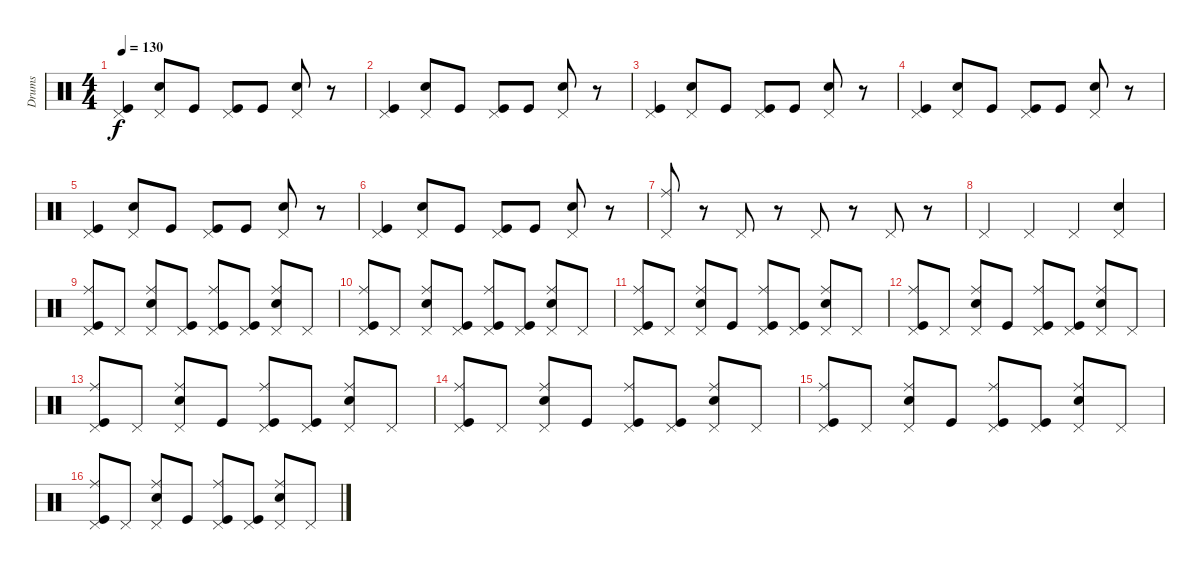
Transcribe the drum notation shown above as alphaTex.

\track ("Drums" "Drums") {instrument percussion}
\staff {score}
\articulation defaults
\ts (4 4)
\tempo 130
\clef neutral
\ks c
("Pedal Hi-Hat (hit)" "Kick (hit)").4{dy f} ("Pedal Hi-Hat (hit)" "Electric Snare (hit)").8 "Kick (hit)".8 ("Pedal Hi-Hat (hit)" "Kick (hit)").8 "Kick (hit)".8 ("Pedal Hi-Hat (hit)" "Electric Snare (hit)").8 r.8 |
("Pedal Hi-Hat (hit)" "Kick (hit)").4 ("Pedal Hi-Hat (hit)" "Electric Snare (hit)").8 "Kick (hit)".8 ("Pedal Hi-Hat (hit)" "Kick (hit)").8 "Kick (hit)".8 ("Pedal Hi-Hat (hit)" "Electric Snare (hit)").8 r.8 |
("Pedal Hi-Hat (hit)" "Kick (hit)").4 ("Pedal Hi-Hat (hit)" "Electric Snare (hit)").8 "Kick (hit)".8 ("Pedal Hi-Hat (hit)" "Kick (hit)").8 "Kick (hit)".8 ("Pedal Hi-Hat (hit)" "Electric Snare (hit)").8 r.8 |
("Pedal Hi-Hat (hit)" "Kick (hit)").4 ("Pedal Hi-Hat (hit)" "Electric Snare (hit)").8 "Kick (hit)".8 ("Pedal Hi-Hat (hit)" "Kick (hit)").8 "Kick (hit)".8 ("Pedal Hi-Hat (hit)" "Electric Snare (hit)").8 r.8 |
("Pedal Hi-Hat (hit)" "Kick (hit)").4 ("Pedal Hi-Hat (hit)" "Electric Snare (hit)").8 "Kick (hit)".8 ("Pedal Hi-Hat (hit)" "Kick (hit)").8 "Kick (hit)".8 ("Pedal Hi-Hat (hit)" "Electric Snare (hit)").8 r.8 |
("Pedal Hi-Hat (hit)" "Kick (hit)").4 ("Pedal Hi-Hat (hit)" "Electric Snare (hit)").8 "Kick (hit)".8 ("Pedal Hi-Hat (hit)" "Kick (hit)").8 "Kick (hit)".8 ("Pedal Hi-Hat (hit)" "Electric Snare (hit)").8 r.8 |
("Pedal Hi-Hat (hit)" "Ride (middle)").8 r.8 "Pedal Hi-Hat (hit)".8 r.8 "Pedal Hi-Hat (hit)".8 r.8 "Pedal Hi-Hat (hit)".8 r.8 |
"Pedal Hi-Hat (hit)".4 "Pedal Hi-Hat (hit)".4 "Pedal Hi-Hat (hit)".4 ("Electric Snare (hit)" "Pedal Hi-Hat (hit)").4 |
("Ride (middle)" "Pedal Hi-Hat (hit)" "Kick (hit)").8 "Pedal Hi-Hat (hit)".8 ("Ride (middle)" "Pedal Hi-Hat (hit)" "Electric Snare (hit)").8 ("Pedal Hi-Hat (hit)" "Kick (hit)").8 ("Ride (middle)" "Pedal Hi-Hat (hit)" "Kick (hit)").8 ("Pedal Hi-Hat (hit)" "Kick (hit)").8 ("Ride (middle)" "Pedal Hi-Hat (hit)" "Electric Snare (hit)").8 "Pedal Hi-Hat (hit)".8 |
("Ride (middle)" "Pedal Hi-Hat (hit)" "Kick (hit)").8 "Pedal Hi-Hat (hit)".8 ("Ride (middle)" "Pedal Hi-Hat (hit)" "Electric Snare (hit)").8 ("Pedal Hi-Hat (hit)" "Kick (hit)").8 ("Ride (middle)" "Pedal Hi-Hat (hit)" "Kick (hit)").8 ("Pedal Hi-Hat (hit)" "Kick (hit)").8 ("Ride (middle)" "Pedal Hi-Hat (hit)" "Electric Snare (hit)").8 "Pedal Hi-Hat (hit)".8 |
("Ride (middle)" "Pedal Hi-Hat (hit)" "Kick (hit)").8 "Pedal Hi-Hat (hit)".8 ("Ride (middle)" "Pedal Hi-Hat (hit)" "Electric Snare (hit)").8 "Kick (hit)".8 ("Ride (middle)" "Pedal Hi-Hat (hit)" "Kick (hit)").8 ("Pedal Hi-Hat (hit)" "Kick (hit)").8 ("Ride (middle)" "Pedal Hi-Hat (hit)" "Electric Snare (hit)").8 "Pedal Hi-Hat (hit)".8 |
("Ride (middle)" "Pedal Hi-Hat (hit)" "Kick (hit)").8 "Pedal Hi-Hat (hit)".8 ("Ride (middle)" "Pedal Hi-Hat (hit)" "Electric Snare (hit)").8 "Kick (hit)".8 ("Ride (middle)" "Pedal Hi-Hat (hit)" "Kick (hit)").8 ("Pedal Hi-Hat (hit)" "Kick (hit)").8 ("Ride (middle)" "Pedal Hi-Hat (hit)" "Electric Snare (hit)").8 "Pedal Hi-Hat (hit)".8 |
("Ride (middle)" "Pedal Hi-Hat (hit)" "Kick (hit)").8 "Pedal Hi-Hat (hit)".8 ("Ride (middle)" "Pedal Hi-Hat (hit)" "Electric Snare (hit)").8 "Kick (hit)".8 ("Ride (middle)" "Pedal Hi-Hat (hit)" "Kick (hit)").8 ("Pedal Hi-Hat (hit)" "Kick (hit)").8 ("Ride (middle)" "Pedal Hi-Hat (hit)" "Electric Snare (hit)").8 "Pedal Hi-Hat (hit)".8 |
("Ride (middle)" "Pedal Hi-Hat (hit)" "Kick (hit)").8 "Pedal Hi-Hat (hit)".8 ("Ride (middle)" "Pedal Hi-Hat (hit)" "Electric Snare (hit)").8 "Kick (hit)".8 ("Ride (middle)" "Pedal Hi-Hat (hit)" "Kick (hit)").8 ("Pedal Hi-Hat (hit)" "Kick (hit)").8 ("Ride (middle)" "Pedal Hi-Hat (hit)" "Electric Snare (hit)").8 "Pedal Hi-Hat (hit)".8 |
("Ride (middle)" "Pedal Hi-Hat (hit)" "Kick (hit)").8 "Pedal Hi-Hat (hit)".8 ("Ride (middle)" "Pedal Hi-Hat (hit)" "Electric Snare (hit)").8 "Kick (hit)".8 ("Ride (middle)" "Pedal Hi-Hat (hit)" "Kick (hit)").8 ("Pedal Hi-Hat (hit)" "Kick (hit)").8 ("Ride (middle)" "Pedal Hi-Hat (hit)" "Electric Snare (hit)").8 "Pedal Hi-Hat (hit)".8 |
("Ride (middle)" "Pedal Hi-Hat (hit)" "Kick (hit)").8 "Pedal Hi-Hat (hit)".8 ("Ride (middle)" "Pedal Hi-Hat (hit)" "Electric Snare (hit)").8 "Kick (hit)".8 ("Ride (middle)" "Pedal Hi-Hat (hit)" "Kick (hit)").8 ("Pedal Hi-Hat (hit)" "Kick (hit)").8 ("Ride (middle)" "Pedal Hi-Hat (hit)" "Electric Snare (hit)").8 "Pedal Hi-Hat (hit)".8
